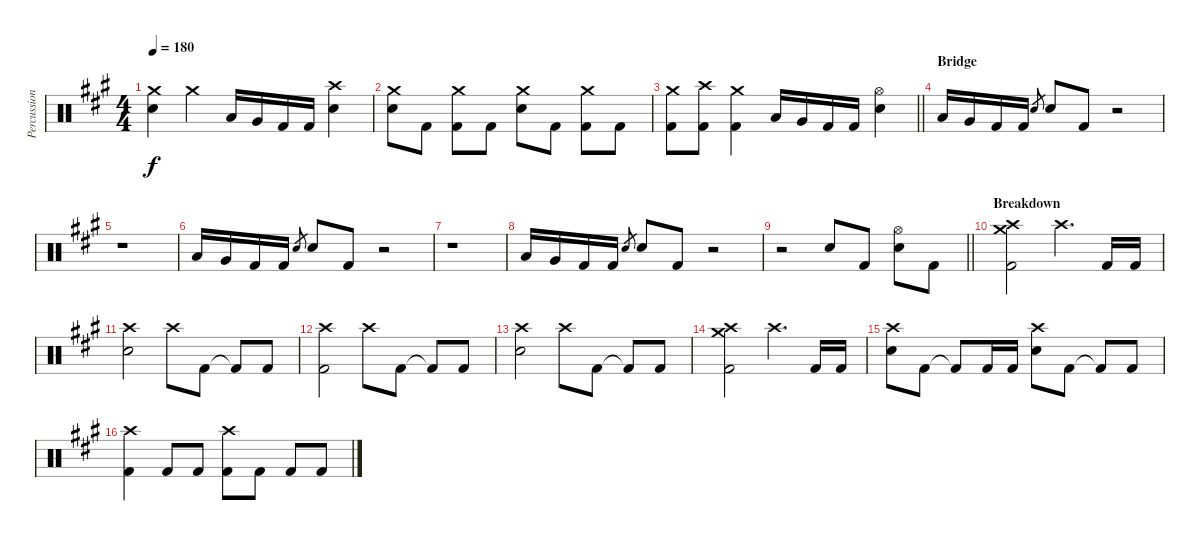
\track ("Percussion" "Percussion") {instrument percussion}
\staff {score}
\articulation defaults
\ts (4 4)
\tempo 180
\clef neutral
\ks f#minor
("Crash medium (hit)" "Electric Snare (hit)").4{dy f} "Crash medium (hit)".4 "Low Tom (hit)".16 "Very Low Tom (hit)".16 "Kick (hit) 2".16 "Kick (hit) 2".16 ("Crash high (hit)" "Electric Snare (hit)").4 |
("Crash medium (hit)" "Electric Snare (hit)").8 "Kick (hit) 2".8 ("Crash medium (hit)" "Kick (hit) 2").8 "Kick (hit) 2".8 ("Crash medium (hit)" "Electric Snare (hit)").8 "Kick (hit) 2".8 ("Crash medium (hit)" "Kick (hit) 2").8 "Kick (hit) 2".8 |
\barLineRight lightlight
("Crash medium (hit)" "Kick (hit) 2").8 ("Crash high (hit)" "Kick (hit) 2").8 ("Crash medium (hit)" "Kick (hit) 2").4 "Low Tom (hit)".16 "Very Low Tom (hit)".16 "Kick (hit) 2".16 "Kick (hit) 2".16 ("Hi-Hat (open)" "Electric Snare (hit)").4 |
\section ("" "Bridge")
"Low Tom (hit)".16 "Very Low Tom (hit)".16 "Kick (hit) 2".16 "Kick (hit) 2".16 "Electric Snare (hit)".8{gr} "Electric Snare (hit)".8 "Kick (hit) 2".8 r.2 |
r.1 |
"Low Tom (hit)".16 "Very Low Tom (hit)".16 "Kick (hit) 2".16 "Kick (hit) 2".16 "Electric Snare (hit)".8{gr} "Electric Snare (hit)".8 "Kick (hit) 2".8 r.2 |
r.1 |
"Low Tom (hit)".16 "Very Low Tom (hit)".16 "Kick (hit) 2".16 "Kick (hit) 2".16 "Electric Snare (hit)".8{gr} "Electric Snare (hit)".8 "Kick (hit) 2".8 r.2 |
\barLineRight lightlight
r.2 "Electric Snare (hit)".8 "Kick (hit) 2".8 ("Hi-Hat (open)" "Electric Snare (hit)").8 "Kick (hit) 2".8 |
\section ("" "Breakdown")
("Crash medium (hit)" "Crash high (hit)" "Kick (hit) 2").2 "Crash high (hit)".4{d} "Kick (hit) 2".16 "Kick (hit) 2".16 |
("Crash high (hit)" "Electric Snare (hit)").2 "Crash high (hit)".8 "Kick (hit) 2".8 "Kick (hit) 2"{t}.8 "Kick (hit) 2".8 |
("Crash high (hit)" "Kick (hit) 2").2 "Crash high (hit)".8 "Kick (hit) 2".8 "Kick (hit) 2"{t}.8 "Kick (hit) 2".8 |
("Crash high (hit)" "Electric Snare (hit)").2 "Crash high (hit)".8 "Kick (hit) 2".8 "Kick (hit) 2"{t}.8 "Kick (hit) 2".8 |
("Crash medium (hit)" "Crash high (hit)" "Kick (hit) 2").2 "Crash high (hit)".4{d} "Kick (hit) 2".16 "Kick (hit) 2".16 |
("Crash high (hit)" "Electric Snare (hit)").8 "Kick (hit) 2".8 "Kick (hit) 2"{t}.8 "Kick (hit) 2".16 "Kick (hit) 2".16 ("Crash high (hit)" "Electric Snare (hit)").8 "Kick (hit) 2".8 "Kick (hit) 2"{t}.8 "Kick (hit) 2".8 |
("Crash high (hit)" "Kick (hit) 2").4 "Kick (hit) 2".8 "Kick (hit) 2".8 ("Crash high (hit)" "Kick (hit) 2").8 "Kick (hit) 2".8 "Kick (hit) 2".8 "Kick (hit) 2".8
